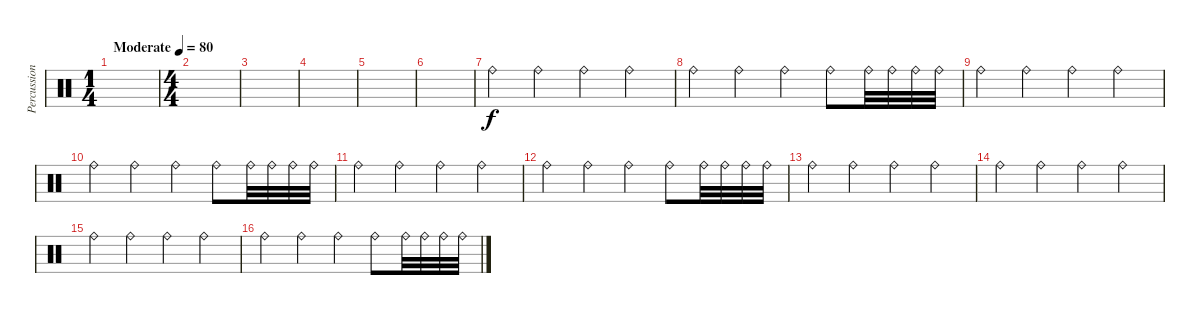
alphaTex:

\track ("Percussion" "Percussion") {instrument percussion}
\staff {score}
\articulation defaults
\ts (1 4)
\tempo (80 "Moderate")
\clef neutral
\ks c
|
\ts (4 4)
|
|
|
|
|
"Ride (bell)".4{volume 9} "Ride (bell)".4 "Ride (bell)".4 "Ride (bell)".4 |
"Ride (bell)".4 "Ride (bell)".4 "Ride (bell)".4 "Ride (bell)".8 "Ride (bell)".32 "Ride (bell)".32 "Ride (bell)".32 "Ride (bell)".32 |
"Ride (bell)".4 "Ride (bell)".4 "Ride (bell)".4 "Ride (bell)".4 |
"Ride (bell)".4 "Ride (bell)".4 "Ride (bell)".4 "Ride (bell)".8 "Ride (bell)".32 "Ride (bell)".32 "Ride (bell)".32 "Ride (bell)".32 |
"Ride (bell)".4 "Ride (bell)".4 "Ride (bell)".4 "Ride (bell)".4 |
"Ride (bell)".4 "Ride (bell)".4 "Ride (bell)".4 "Ride (bell)".8 "Ride (bell)".32 "Ride (bell)".32 "Ride (bell)".32 "Ride (bell)".32 |
"Ride (bell)".4 "Ride (bell)".4 "Ride (bell)".4 "Ride (bell)".4 |
"Ride (bell)".4 "Ride (bell)".4 "Ride (bell)".4 "Ride (bell)".4 |
"Ride (bell)".4 "Ride (bell)".4 "Ride (bell)".4 "Ride (bell)".4 |
"Ride (bell)".4 "Ride (bell)".4 "Ride (bell)".4 "Ride (bell)".8 "Ride (bell)".32 "Ride (bell)".32 "Ride (bell)".32 "Ride (bell)".32
